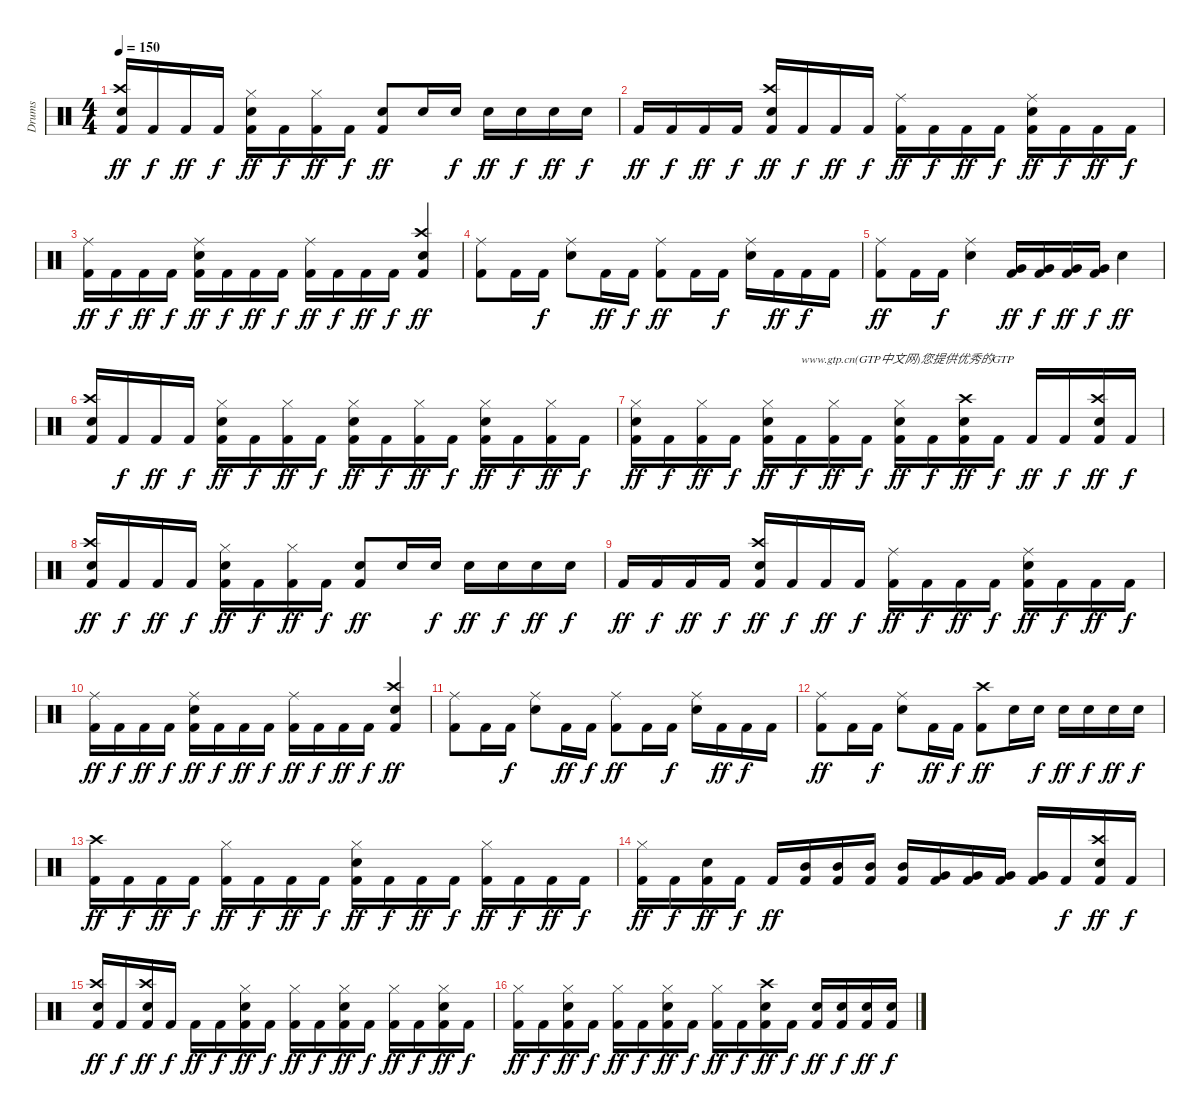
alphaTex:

\track ("Drums" "Drums") {instrument percussion}
\staff {score}
\articulation defaults
\ts (4 4)
\tempo 150
\clef neutral
\ks c
("Kick (hit) 2" "Crash high (hit)" "Snare (hit) 2").16{dy ff} "Kick (hit) 2".16{dy f} "Kick (hit) 2".16{dy ff} "Kick (hit) 2".16{dy f} ("Kick (hit) 2" "Hi-Hat (closed)" "Snare (hit) 2").16{dy ff} "Kick (hit) 2".16{dy f} ("Hi-Hat (closed)" "Kick (hit) 2").16{dy ff} "Kick (hit) 2".16{dy f} ("Kick (hit) 2" "Snare (hit) 2").8{dy ff} "Snare (hit) 2".16 "Snare (hit) 2".16{dy f} "Snare (hit) 2".16{dy ff} "Snare (hit) 2".16{dy f} "Snare (hit) 2".16{dy ff} "Snare (hit) 2".16{dy f} |
"Kick (hit) 2".16{dy ff} "Kick (hit) 2".16{dy f} "Kick (hit) 2".16{dy ff} "Kick (hit) 2".16{dy f} ("Kick (hit) 2" "Crash high (hit)" "Snare (hit) 2").16{dy ff} "Kick (hit) 2".16{dy f} "Kick (hit) 2".16{dy ff} "Kick (hit) 2".16{dy f} ("Ride (middle)" "Kick (hit) 2").16{dy ff} "Kick (hit) 2".16{dy f} "Kick (hit) 2".16{dy ff} "Kick (hit) 2".16{dy f} ("Kick (hit) 2" "Snare (hit) 2" "Ride (middle)").16{dy ff} "Kick (hit) 2".16{dy f} "Kick (hit) 2".16{dy ff} "Kick (hit) 2".16{dy f} |
("Ride (middle)" "Kick (hit) 2").16{dy ff} "Kick (hit) 2".16{dy f} "Kick (hit) 2".16{dy ff} "Kick (hit) 2".16{dy f} ("Kick (hit) 2" "Snare (hit) 2" "Ride (middle)").16{dy ff} "Kick (hit) 2".16{dy f} "Kick (hit) 2".16{dy ff} "Kick (hit) 2".16{dy f} ("Ride (middle)" "Kick (hit) 2").16{dy ff} "Kick (hit) 2".16{dy f} "Kick (hit) 2".16{dy ff} "Kick (hit) 2".16{dy f} ("Kick (hit) 2" "Crash high (hit)" "Snare (hit) 2").4{dy ff} |
("Ride (middle)" "Kick (hit) 2").8 "Kick (hit) 2".16 "Kick (hit) 2".16{dy f} ("Snare (hit) 2" "Ride (middle)").8 "Kick (hit) 2".16{dy ff} "Kick (hit) 2".16{dy f} ("Ride (middle)" "Kick (hit) 2").8{dy ff} "Kick (hit) 2".16 "Kick (hit) 2".16{dy f} ("Snare (hit) 2" "Ride (middle)").16 "Kick (hit) 2".16{dy ff} "Kick (hit) 2".16{dy f} "Kick (hit) 2".16 |
("Ride (middle)" "Kick (hit) 2").8{dy ff} "Kick (hit) 2".16 "Kick (hit) 2".16{dy f} ("Snare (hit) 2" "Ride (middle)").4 ("Very Low Tom (hit)" "Kick (hit) 2").16{dy ff} ("Kick (hit) 2" "Very Low Tom (hit)").16{dy f} ("Very Low Tom (hit)" "Kick (hit) 2").16{dy ff} ("Kick (hit) 2" "Very Low Tom (hit)").16{dy f} "Snare (hit) 2".4{dy ff} |
("Kick (hit) 2" "Crash high (hit)" "Snare (hit) 2").16 "Kick (hit) 2".16{dy f} "Kick (hit) 2".16{dy ff} "Kick (hit) 2".16{dy f} ("Kick (hit) 2" "Hi-Hat (closed)" "Snare (hit) 2").16{dy ff} "Kick (hit) 2".16{dy f} ("Hi-Hat (closed)" "Kick (hit) 2").16{dy ff} "Kick (hit) 2".16{dy f} ("Kick (hit) 2" "Hi-Hat (closed)" "Snare (hit) 2").16{dy ff} "Kick (hit) 2".16{dy f} ("Hi-Hat (closed)" "Kick (hit) 2").16{dy ff} "Kick (hit) 2".16{dy f} ("Kick (hit) 2" "Hi-Hat (closed)" "Snare (hit) 2").16{dy ff} "Kick (hit) 2".16{dy f} ("Hi-Hat (closed)" "Kick (hit) 2").16{dy ff} "Kick (hit) 2".16{dy f} |
("Kick (hit) 2" "Hi-Hat (closed)" "Snare (hit) 2").16{dy ff} "Kick (hit) 2".16{dy f} ("Hi-Hat (closed)" "Kick (hit) 2").16{dy ff} "Kick (hit) 2".16{dy f} ("Kick (hit) 2" "Hi-Hat (closed)" "Snare (hit) 2").16{dy ff} "Kick (hit) 2".16{txt "www.gtp.cn(GTP中文网)您提供优秀的GTP" dy f} ("Hi-Hat (closed)" "Kick (hit) 2").16{dy ff} "Kick (hit) 2".16{dy f} ("Kick (hit) 2" "Hi-Hat (closed)" "Snare (hit) 2").16{dy ff} "Kick (hit) 2".16{dy f} ("Kick (hit) 2" "Snare (hit) 2" "Crash high (hit)").16{dy ff} "Kick (hit) 2".16{dy f} "Kick (hit) 2".16{dy ff} "Kick (hit) 2".16{dy f} ("Kick (hit) 2" "Snare (hit) 2" "Crash high (hit)").16{dy ff} "Kick (hit) 2".16{dy f} |
("Kick (hit) 2" "Crash high (hit)" "Snare (hit) 2").16{dy ff} "Kick (hit) 2".16{dy f} "Kick (hit) 2".16{dy ff} "Kick (hit) 2".16{dy f} ("Kick (hit) 2" "Hi-Hat (closed)" "Snare (hit) 2").16{dy ff} "Kick (hit) 2".16{dy f} ("Hi-Hat (closed)" "Kick (hit) 2").16{dy ff} "Kick (hit) 2".16{dy f} ("Kick (hit) 2" "Snare (hit) 2").8{dy ff} "Snare (hit) 2".16 "Snare (hit) 2".16{dy f} "Snare (hit) 2".16{dy ff} "Snare (hit) 2".16{dy f} "Snare (hit) 2".16{dy ff} "Snare (hit) 2".16{dy f} |
"Kick (hit) 2".16{dy ff} "Kick (hit) 2".16{dy f} "Kick (hit) 2".16{dy ff} "Kick (hit) 2".16{dy f} ("Kick (hit) 2" "Crash high (hit)" "Snare (hit) 2").16{dy ff} "Kick (hit) 2".16{dy f} "Kick (hit) 2".16{dy ff} "Kick (hit) 2".16{dy f} ("Ride (middle)" "Kick (hit) 2").16{dy ff} "Kick (hit) 2".16{dy f} "Kick (hit) 2".16{dy ff} "Kick (hit) 2".16{dy f} ("Kick (hit) 2" "Snare (hit) 2" "Ride (middle)").16{dy ff} "Kick (hit) 2".16{dy f} "Kick (hit) 2".16{dy ff} "Kick (hit) 2".16{dy f} |
("Ride (middle)" "Kick (hit) 2").16{dy ff} "Kick (hit) 2".16{dy f} "Kick (hit) 2".16{dy ff} "Kick (hit) 2".16{dy f} ("Kick (hit) 2" "Snare (hit) 2" "Ride (middle)").16{dy ff} "Kick (hit) 2".16{dy f} "Kick (hit) 2".16{dy ff} "Kick (hit) 2".16{dy f} ("Ride (middle)" "Kick (hit) 2").16{dy ff} "Kick (hit) 2".16{dy f} "Kick (hit) 2".16{dy ff} "Kick (hit) 2".16{dy f} ("Kick (hit) 2" "Crash high (hit)" "Snare (hit) 2").4{dy ff} |
("Ride (middle)" "Kick (hit) 2").8 "Kick (hit) 2".16 "Kick (hit) 2".16{dy f} ("Snare (hit) 2" "Ride (middle)").8 "Kick (hit) 2".16{dy ff} "Kick (hit) 2".16{dy f} ("Ride (middle)" "Kick (hit) 2").8{dy ff} "Kick (hit) 2".16 "Kick (hit) 2".16{dy f} ("Snare (hit) 2" "Ride (middle)").16 "Kick (hit) 2".16{dy ff} "Kick (hit) 2".16{dy f} "Kick (hit) 2".16 |
("Ride (middle)" "Kick (hit) 2").8{dy ff} "Kick (hit) 2".16 "Kick (hit) 2".16{dy f} ("Snare (hit) 2" "Ride (middle)").8 "Kick (hit) 2".16{dy ff} "Kick (hit) 2".16{dy f} ("Crash high (hit)" "Kick (hit) 2").8{dy ff} "Snare (hit) 2".16 "Snare (hit) 2".16{dy f} "Snare (hit) 2".16{dy ff} "Snare (hit) 2".16{dy f} "Snare (hit) 2".16{dy ff} "Snare (hit) 2".16{dy f} |
("Crash high (hit)" "Kick (hit) 2").16{dy ff} "Kick (hit) 2".16{dy f} "Kick (hit) 2".16{dy ff} "Kick (hit) 2".16{dy f} ("Hi-Hat (closed)" "Kick (hit) 2").16{dy ff} "Kick (hit) 2".16{dy f} "Kick (hit) 2".16{dy ff} "Kick (hit) 2".16{dy f} ("Kick (hit) 2" "Snare (hit) 2" "Hi-Hat (closed)").16{dy ff} "Kick (hit) 2".16{dy f} "Kick (hit) 2".16{dy ff} "Kick (hit) 2".16{dy f} ("Hi-Hat (closed)" "Kick (hit) 2").16{dy ff} "Kick (hit) 2".16{dy f} "Kick (hit) 2".16{dy ff} "Kick (hit) 2".16{dy f} |
("Hi-Hat (closed)" "Kick (hit) 2").16{dy ff} "Kick (hit) 2".16{dy f} ("Snare (hit) 2" "Kick (hit) 2").16{dy ff} "Kick (hit) 2".16{dy f} "Kick (hit) 2".16{dy ff} ("Mid Tom (hit)" "Kick (hit) 2").16 ("Mid Tom (hit)" "Kick (hit) 2").16 ("Mid Tom (hit)" "Kick (hit) 2").16 ("Mid Tom (hit)" "Kick (hit) 2").16 ("Very Low Tom (hit)" "Kick (hit) 2").16 ("Very Low Tom (hit)" "Kick (hit) 2").16 ("Very Low Tom (hit)" "Kick (hit) 2").16 ("Very Low Tom (hit)" "Kick (hit) 2").16 "Kick (hit) 2".16{dy f} ("Kick (hit) 2" "Crash high (hit)" "Snare (hit) 2").16{dy ff} "Kick (hit) 2".16{dy f} |
("Kick (hit) 2" "Snare (hit) 2" "Crash high (hit)").16{dy ff} "Kick (hit) 2".16{dy f} ("Kick (hit) 2" "Snare (hit) 2" "Crash high (hit)").16{dy ff} "Kick (hit) 2".16{dy f} "Kick (hit) 2".16{dy ff} "Kick (hit) 2".16{dy f} ("Kick (hit) 2" "Hi-Hat (closed)" "Snare (hit) 2").16{dy ff} "Kick (hit) 2".16{dy f} ("Hi-Hat (closed)" "Kick (hit) 2").16{dy ff} "Kick (hit) 2".16{dy f} ("Kick (hit) 2" "Hi-Hat (closed)" "Snare (hit) 2").16{dy ff} "Kick (hit) 2".16{dy f} ("Hi-Hat (closed)" "Kick (hit) 2").16{dy ff} "Kick (hit) 2".16{dy f} ("Kick (hit) 2" "Hi-Hat (closed)" "Snare (hit) 2").16{dy ff} "Kick (hit) 2".16{dy f} |
("Hi-Hat (closed)" "Kick (hit) 2").16{dy ff} "Kick (hit) 2".16{dy f} ("Kick (hit) 2" "Hi-Hat (closed)" "Snare (hit) 2").16{dy ff} "Kick (hit) 2".16{dy f} ("Hi-Hat (closed)" "Kick (hit) 2").16{dy ff} "Kick (hit) 2".16{dy f} ("Kick (hit) 2" "Hi-Hat (closed)" "Snare (hit) 2").16{dy ff} "Kick (hit) 2".16{dy f} ("Hi-Hat (closed)" "Kick (hit) 2").16{dy ff} "Kick (hit) 2".16{dy f} ("Snare (hit) 2" "Crash high (hit)" "Kick (hit) 2").16{dy ff} "Kick (hit) 2".16{dy f} ("Snare (hit) 2" "Kick (hit) 2").16{dy ff} ("Snare (hit) 2" "Kick (hit) 2").16{dy f} ("Snare (hit) 2" "Kick (hit) 2").16{dy ff} ("Snare (hit) 2" "Kick (hit) 2").16{dy f}
